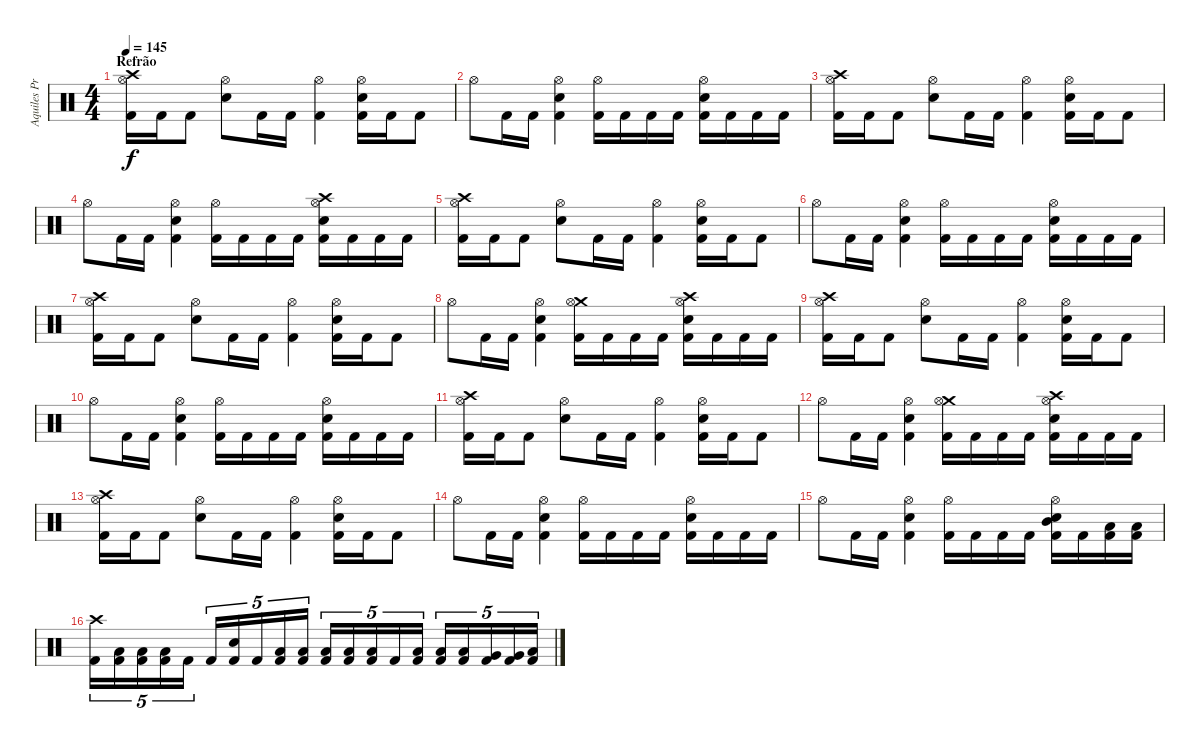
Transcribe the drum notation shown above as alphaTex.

\track ("Aquiles Priester" "Aquiles Pr") {instrument percussion}
\staff {score}
\articulation defaults
\ts (4 4)
\section ("" "Refrão")
\tempo 145
\clef neutral
\ks c
("Crash high (hit)" "Hi-Hat (open)" "Kick (hit) 2").16{dy f} "Kick (hit) 2".16 "Kick (hit) 2".8 ("Hi-Hat (open)" "Electric Snare (hit)").8 "Kick (hit) 2".16 "Kick (hit) 2".16 ("Hi-Hat (open)" "Kick (hit) 2").4 ("Hi-Hat (open)" "Electric Snare (hit)" "Kick (hit) 2").16 "Kick (hit) 2".16 "Kick (hit) 2".8 |
"Hi-Hat (open)".8 "Kick (hit) 2".16 "Kick (hit) 2".16 ("Hi-Hat (open)" "Electric Snare (hit)" "Kick (hit) 2").4 ("Hi-Hat (open)" "Kick (hit) 2").16 "Kick (hit) 2".16 "Kick (hit) 2".16 "Kick (hit) 2".16 ("Hi-Hat (open)" "Electric Snare (hit)" "Kick (hit) 2").16 "Kick (hit) 2".16 "Kick (hit) 2".16 "Kick (hit) 2".16 |
("Crash high (hit)" "Hi-Hat (open)" "Kick (hit) 2").16 "Kick (hit) 2".16 "Kick (hit) 2".8 ("Hi-Hat (open)" "Electric Snare (hit)").8 "Kick (hit) 2".16 "Kick (hit) 2".16 ("Hi-Hat (open)" "Kick (hit) 2").4 ("Hi-Hat (open)" "Electric Snare (hit)" "Kick (hit) 2").16 "Kick (hit) 2".16 "Kick (hit) 2".8 |
"Hi-Hat (open)".8 "Kick (hit) 2".16 "Kick (hit) 2".16 ("Hi-Hat (open)" "Electric Snare (hit)" "Kick (hit) 2").4 ("Hi-Hat (open)" "Kick (hit) 2").16 "Kick (hit) 2".16 "Kick (hit) 2".16 "Kick (hit) 2".16 ("Crash high (hit)" "Hi-Hat (open)" "Electric Snare (hit)" "Kick (hit) 2").16 "Kick (hit) 2".16 "Kick (hit) 2".16 "Kick (hit) 2".16 |
("Crash high (hit)" "Hi-Hat (open)" "Kick (hit) 2").16 "Kick (hit) 2".16 "Kick (hit) 2".8 ("Hi-Hat (open)" "Electric Snare (hit)").8 "Kick (hit) 2".16 "Kick (hit) 2".16 ("Hi-Hat (open)" "Kick (hit) 2").4 ("Hi-Hat (open)" "Electric Snare (hit)" "Kick (hit) 2").16 "Kick (hit) 2".16 "Kick (hit) 2".8 |
"Hi-Hat (open)".8 "Kick (hit) 2".16 "Kick (hit) 2".16 ("Hi-Hat (open)" "Electric Snare (hit)" "Kick (hit) 2").4 ("Hi-Hat (open)" "Kick (hit) 2").16 "Kick (hit) 2".16 "Kick (hit) 2".16 "Kick (hit) 2".16 ("Hi-Hat (open)" "Electric Snare (hit)" "Kick (hit) 2").16 "Kick (hit) 2".16 "Kick (hit) 2".16 "Kick (hit) 2".16 |
("Crash high (hit)" "Hi-Hat (open)" "Kick (hit) 2").16 "Kick (hit) 2".16 "Kick (hit) 2".8 ("Hi-Hat (open)" "Electric Snare (hit)").8 "Kick (hit) 2".16 "Kick (hit) 2".16 ("Hi-Hat (open)" "Kick (hit) 2").4 ("Hi-Hat (open)" "Electric Snare (hit)" "Kick (hit) 2").16 "Kick (hit) 2".16 "Kick (hit) 2".8 |
"Hi-Hat (open)".8 "Kick (hit) 2".16 "Kick (hit) 2".16 ("Hi-Hat (open)" "Electric Snare (hit)" "Kick (hit) 2").4 ("Crash medium (hit)" "Hi-Hat (open)" "Kick (hit) 2").16 "Kick (hit) 2".16 "Kick (hit) 2".16 "Kick (hit) 2".16 ("Crash high (hit)" "Hi-Hat (open)" "Electric Snare (hit)" "Kick (hit) 2").16 "Kick (hit) 2".16 "Kick (hit) 2".16 "Kick (hit) 2".16 |
("Crash high (hit)" "Hi-Hat (open)" "Kick (hit) 2").16 "Kick (hit) 2".16 "Kick (hit) 2".8 ("Hi-Hat (open)" "Electric Snare (hit)").8 "Kick (hit) 2".16 "Kick (hit) 2".16 ("Hi-Hat (open)" "Kick (hit) 2").4 ("Hi-Hat (open)" "Electric Snare (hit)" "Kick (hit) 2").16 "Kick (hit) 2".16 "Kick (hit) 2".8 |
"Hi-Hat (open)".8 "Kick (hit) 2".16 "Kick (hit) 2".16 ("Hi-Hat (open)" "Electric Snare (hit)" "Kick (hit) 2").4 ("Hi-Hat (open)" "Kick (hit) 2").16 "Kick (hit) 2".16 "Kick (hit) 2".16 "Kick (hit) 2".16 ("Hi-Hat (open)" "Electric Snare (hit)" "Kick (hit) 2").16 "Kick (hit) 2".16 "Kick (hit) 2".16 "Kick (hit) 2".16 |
("Crash high (hit)" "Hi-Hat (open)" "Kick (hit) 2").16 "Kick (hit) 2".16 "Kick (hit) 2".8 ("Hi-Hat (open)" "Electric Snare (hit)").8 "Kick (hit) 2".16 "Kick (hit) 2".16 ("Hi-Hat (open)" "Kick (hit) 2").4 ("Hi-Hat (open)" "Electric Snare (hit)" "Kick (hit) 2").16 "Kick (hit) 2".16 "Kick (hit) 2".8 |
"Hi-Hat (open)".8 "Kick (hit) 2".16 "Kick (hit) 2".16 ("Hi-Hat (open)" "Electric Snare (hit)" "Kick (hit) 2").4 ("Crash medium (hit)" "Hi-Hat (open)" "Kick (hit) 2").16 "Kick (hit) 2".16 "Kick (hit) 2".16 "Kick (hit) 2".16 ("Crash high (hit)" "Hi-Hat (open)" "Electric Snare (hit)" "Kick (hit) 2").16 "Kick (hit) 2".16 "Kick (hit) 2".16 "Kick (hit) 2".16 |
("Crash high (hit)" "Hi-Hat (open)" "Kick (hit) 2").16 "Kick (hit) 2".16 "Kick (hit) 2".8 ("Hi-Hat (open)" "Electric Snare (hit)").8 "Kick (hit) 2".16 "Kick (hit) 2".16 ("Hi-Hat (open)" "Kick (hit) 2").4 ("Hi-Hat (open)" "Electric Snare (hit)" "Kick (hit) 2").16 "Kick (hit) 2".16 "Kick (hit) 2".8 |
"Hi-Hat (open)".8 "Kick (hit) 2".16 "Kick (hit) 2".16 ("Hi-Hat (open)" "Electric Snare (hit)" "Kick (hit) 2").4 ("Hi-Hat (open)" "Kick (hit) 2").16 "Kick (hit) 2".16 "Kick (hit) 2".16 "Kick (hit) 2".16 ("Hi-Hat (open)" "Electric Snare (hit)" "Kick (hit) 2").16 "Kick (hit) 2".16 "Kick (hit) 2".16 "Kick (hit) 2".16 |
"Hi-Hat (open)".8 "Kick (hit) 2".16 "Kick (hit) 2".16 ("Hi-Hat (open)" "Electric Snare (hit)" "Kick (hit) 2").4 ("Hi-Hat (open)" "Kick (hit) 2").16 "Kick (hit) 2".16 "Kick (hit) 2".16 "Kick (hit) 2".16 ("Hi-Hat (open)" "Electric Snare (hit)" "Mid Tom (hit)" "Kick (hit) 2").16 "Kick (hit) 2".16 ("Low Tom (hit)" "Kick (hit) 2").16 ("Low Tom (hit)" "Kick (hit) 2").16 |
("Crash high (hit)" "Kick (hit) 2").16{tu (5 4)} ("Low Tom (hit)" "Kick (hit) 2").16{tu (5 4)} ("Low Tom (hit)" "Kick (hit) 2").16{tu (5 4)} ("Low Tom (hit)" "Kick (hit) 2").16{tu (5 4)} "Kick (hit) 2".16{tu (5 4)} "Kick (hit) 2".16{tu (5 4)} ("Electric Snare (hit)" "Kick (hit) 2").16{tu (5 4)} "Kick (hit) 2".16{tu (5 4)} ("Low Tom (hit)" "Kick (hit) 2").16{tu (5 4)} ("Low Tom (hit)" "Kick (hit) 2").16{tu (5 4)} ("Low Tom (hit)" "Kick (hit) 2").16{tu (5 4)} ("Low Tom (hit)" "Kick (hit) 2").16{tu (5 4)} ("Low Tom (hit)" "Kick (hit) 2").16{tu (5 4)} "Kick (hit) 2".16{tu (5 4)} ("Low Tom (hit)" "Kick (hit) 2").16{tu (5 4)} ("Low Tom (hit)" "Kick (hit) 2").16{tu (5 4)} ("Low Tom (hit)" "Kick (hit) 2").16{tu (5 4)} ("Very Low Tom (hit)" "Kick (hit) 2").16{tu (5 4)} ("Very Low Tom (hit)" "Kick (hit) 2").16{tu (5 4)} ("Low Floor Tom (hit)" "Kick (hit) 2").16{tu (5 4)}
